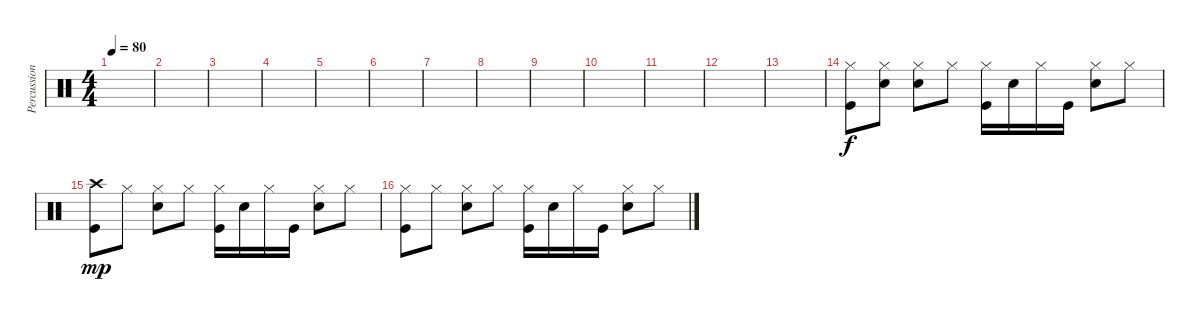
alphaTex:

\track ("Percussion" "Percussion") {instrument percussion}
\staff {score}
\articulation defaults
\ts (4 4)
\tempo 80
\clef neutral
\ks c
|
|
|
|
|
|
|
|
|
|
|
|
|
("Hi-Hat (closed)" "Kick (hit)").8 ("Hi-Hat (closed)" "Snare (hit) 2").8 ("Hi-Hat (closed)" "Snare (hit) 2").8 "Hi-Hat (closed)".8 ("Hi-Hat (closed)" "Kick (hit)").16 "Snare (hit) 2".16 "Hi-Hat (closed)".16 "Kick (hit)".16 ("Hi-Hat (closed)" "Snare (hit) 2").8 "Hi-Hat (closed)".8 |
("Crash high (hit)" "Kick (hit)").8{dy mp} "Hi-Hat (closed)".8 ("Hi-Hat (closed)" "Snare (hit) 2").8 "Hi-Hat (closed)".8 ("Hi-Hat (closed)" "Kick (hit)").16 "Snare (hit) 2".16 "Hi-Hat (closed)".16 "Kick (hit)".16 ("Hi-Hat (closed)" "Snare (hit) 2").8 "Hi-Hat (closed)".8 |
("Hi-Hat (closed)" "Kick (hit)").8 "Hi-Hat (closed)".8 ("Hi-Hat (closed)" "Snare (hit) 2").8 "Hi-Hat (closed)".8 ("Hi-Hat (closed)" "Kick (hit)").16 "Snare (hit) 2".16 "Hi-Hat (closed)".16 "Kick (hit)".16 ("Hi-Hat (closed)" "Snare (hit) 2").8 "Hi-Hat (closed)".8
